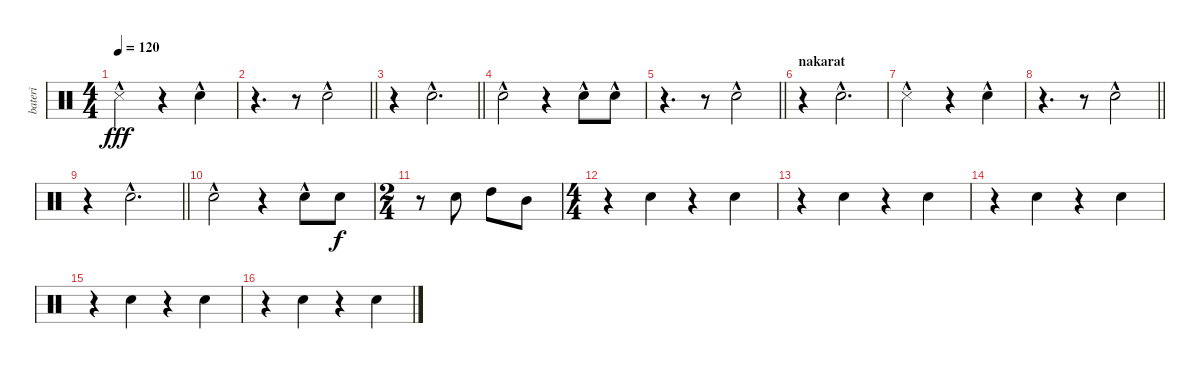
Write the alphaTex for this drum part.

\track ("bateri" "bateri") {instrument percussion}
\staff {score}
\articulation defaults
\ts (4 4)
\tempo 120
\clef neutral
\ks c "Snare (side stick) 3"{hac}.2{dy fff}
r.4 "Electric Snare (hit)"{hac}.4 |
\barLineRight lightlight
r.4{d} r.8 "Electric Snare (hit)"{hac}.2 |
\barLineRight lightlight
r.4 "Electric Snare (hit)"{hac}.2{d} |
"Electric Snare (hit)"{hac}.2 r.4 "Electric Snare (hit)"{hac}.8 "Electric Snare (hit)"{hac}.8 |
\barLineRight lightlight
r.4{d} r.8 "Electric Snare (hit)"{hac}.2 |
\section ("" "nakarat")
r.4 "Electric Snare (hit)"{hac}.2{d} |
"Snare (side stick) 3"{hac}.2 r.4 "Electric Snare (hit)"{hac}.4 |
\barLineRight lightlight
r.4{d} r.8 "Electric Snare (hit)"{hac}.2 |
\barLineRight lightlight
r.4 "Electric Snare (hit)"{hac}.2{d} |
"Electric Snare (hit)"{hac}.2 r.4 "Electric Snare (hit)"{hac}.8 "Electric Snare (hit)".8{dy f} |
\ts (2 4)
r.8 "Electric Snare (hit)".8 "High Tom (hit)".8 "Mid Tom (hit)".8 |
\ts (4 4)
r.4 "Electric Snare (hit)".4 r.4 "Electric Snare (hit)".4 |
r.4 "Electric Snare (hit)".4 r.4 "Electric Snare (hit)".4 |
r.4 "Electric Snare (hit)".4 r.4 "Electric Snare (hit)".4 |
r.4 "Electric Snare (hit)".4 r.4 "Electric Snare (hit)".4 |
r.4 "Electric Snare (hit)".4 r.4 "Electric Snare (hit)".4
